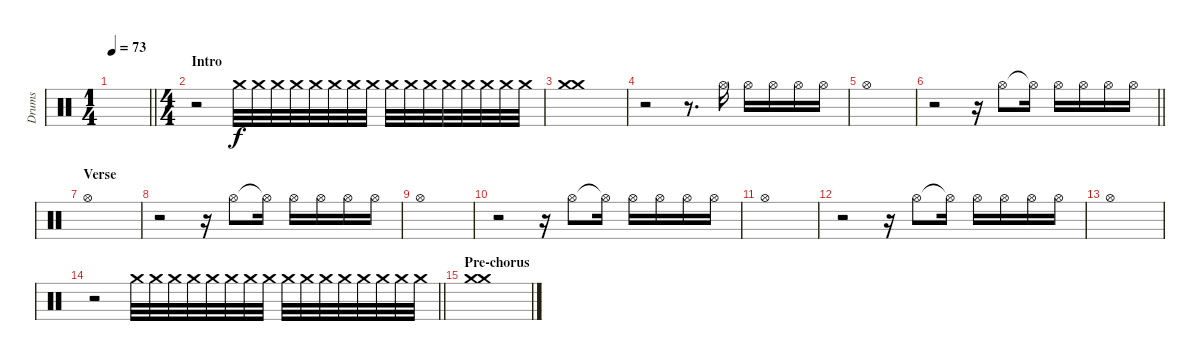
\track ("Drums" "Drums") {instrument percussion}
\staff {score}
\articulation defaults
\ts (1 4)
\tempo 73
\clef neutral
\barLineRight lightlight
\ks c
|
\ts (4 4)
\section ("" "Intro")
r.2{volume 4} "Crash medium (hit)".32{volume 8} "Crash medium (hit)".32 "Crash medium (hit)".32 "Crash medium (hit)".32 "Crash medium (hit)".32 "Crash medium (hit)".32 "Crash medium (hit)".32 "Crash medium (hit)".32 "Crash medium (hit)".32 "Crash medium (hit)".32 "Crash medium (hit)".32 "Crash medium (hit)".32 "Crash medium (hit)".32 "Crash medium (hit)".32 "Crash medium (hit)".32 "Crash medium (hit)".32 |
("Crash medium (hit)" "Crash medium (hit)").1 |
r.2 r.8{d} "Hi-Hat (open)".16 "Hi-Hat (open)".16 "Hi-Hat (open)".16 "Hi-Hat (open)".16 "Hi-Hat (open)".16 |
"Hi-Hat (open)".1 |
\barLineRight lightlight
r.2 r.16 "Hi-Hat (open)".8 "Hi-Hat (open)"{t}.16 "Hi-Hat (open)".16 "Hi-Hat (open)".16 "Hi-Hat (open)".16 "Hi-Hat (open)".16 |
\section ("" "Verse")
"Hi-Hat (open)".1 |
r.2 r.16 "Hi-Hat (open)".8 "Hi-Hat (open)"{t}.16 "Hi-Hat (open)".16 "Hi-Hat (open)".16 "Hi-Hat (open)".16 "Hi-Hat (open)".16 |
"Hi-Hat (open)".1 |
r.2 r.16 "Hi-Hat (open)".8 "Hi-Hat (open)"{t}.16 "Hi-Hat (open)".16 "Hi-Hat (open)".16 "Hi-Hat (open)".16 "Hi-Hat (open)".16 |
"Hi-Hat (open)".1 |
r.2 r.16 "Hi-Hat (open)".8 "Hi-Hat (open)"{t}.16 "Hi-Hat (open)".16 "Hi-Hat (open)".16 "Hi-Hat (open)".16 "Hi-Hat (open)".16 |
"Hi-Hat (open)".1 |
\barLineRight lightlight
r.2{volume 2} "Crash medium (hit)".32{volume 8} "Crash medium (hit)".32 "Crash medium (hit)".32 "Crash medium (hit)".32 "Crash medium (hit)".32 "Crash medium (hit)".32 "Crash medium (hit)".32 "Crash medium (hit)".32 "Crash medium (hit)".32 "Crash medium (hit)".32 "Crash medium (hit)".32 "Crash medium (hit)".32 "Crash medium (hit)".32 "Crash medium (hit)".32 "Crash medium (hit)".32 "Crash medium (hit)".32 |
\section ("" "Pre-chorus")
("Crash medium (hit)" "Crash medium (hit)").1
